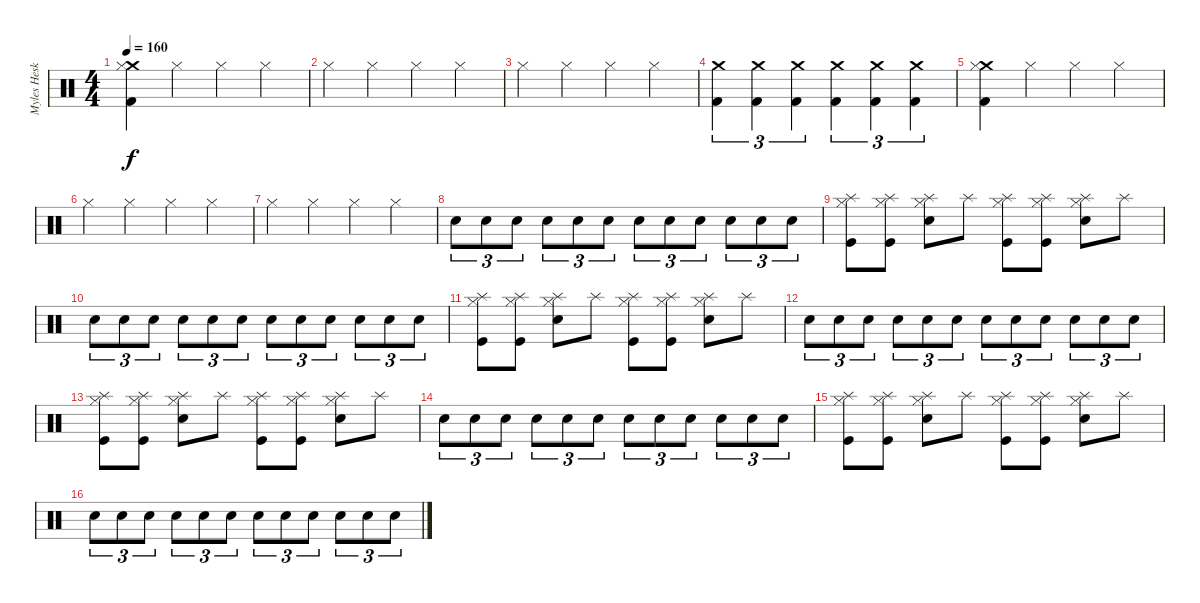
\track ("Myles Heskett" "Myles Hesk") {instrument percussion}
\staff {score}
\articulation defaults
\ts (4 4)
\tempo 160
\clef neutral
\ks c
("Kick (hit) 2" "Crash medium (hit)" "Hi-Hat (closed)").4{dy f} "Hi-Hat (closed)".4 "Hi-Hat (closed)".4 "Hi-Hat (closed)".4 |
"Hi-Hat (closed)".4 "Hi-Hat (closed)".4 "Hi-Hat (closed)".4 "Hi-Hat (closed)".4 |
"Hi-Hat (closed)".4 "Hi-Hat (closed)".4 "Hi-Hat (closed)".4 "Hi-Hat (closed)".4 |
("Kick (hit) 2" "Crash medium (hit)").4{tu (3 2)} ("Kick (hit) 2" "Crash medium (hit)").4{tu (3 2)} ("Kick (hit) 2" "Crash medium (hit)").4{tu (3 2)} ("Kick (hit) 2" "Crash medium (hit)").4{tu (3 2)} ("Kick (hit) 2" "Crash medium (hit)").4{tu (3 2)} ("Kick (hit) 2" "Crash medium (hit)").4{tu (3 2)} |
("Kick (hit) 2" "Crash medium (hit)" "Hi-Hat (closed)").4 "Hi-Hat (closed)".4 "Hi-Hat (closed)".4 "Hi-Hat (closed)".4 |
"Hi-Hat (closed)".4 "Hi-Hat (closed)".4 "Hi-Hat (closed)".4 "Hi-Hat (closed)".4 |
"Hi-Hat (closed)".4 "Hi-Hat (closed)".4 "Hi-Hat (closed)".4 "Hi-Hat (closed)".4 |
"Electric Snare (hit)".8{tu (3 2)} "Electric Snare (hit)".8{tu (3 2)} "Electric Snare (hit)".8{tu (3 2)} "Electric Snare (hit)".8{tu (3 2)} "Electric Snare (hit)".8{tu (3 2)} "Electric Snare (hit)".8{tu (3 2)} "Electric Snare (hit)".8{tu (3 2)} "Electric Snare (hit)".8{tu (3 2)} "Electric Snare (hit)".8{tu (3 2)} "Electric Snare (hit)".8{tu (3 2)} "Electric Snare (hit)".8{tu (3 2)} "Electric Snare (hit)".8{tu (3 2)} |
("Splash (hit)" "Hi-Hat (closed)" "Kick (hit)").8 ("Splash (hit)" "Hi-Hat (closed)" "Kick (hit)").8 ("Splash (hit)" "Hi-Hat (closed)" "Electric Snare (hit)").8 "Splash (hit)".8 ("Splash (hit)" "Hi-Hat (closed)" "Kick (hit)").8 ("Splash (hit)" "Hi-Hat (closed)" "Kick (hit)").8 ("Splash (hit)" "Hi-Hat (closed)" "Electric Snare (hit)").8 "Splash (hit)".8 |
"Snare (hit) 2".8{tu (3 2)} "Snare (hit) 2".8{tu (3 2)} "Snare (hit) 2".8{tu (3 2)} "Electric Snare (hit)".8{tu (3 2)} "Electric Snare (hit)".8{tu (3 2)} "Electric Snare (hit)".8{tu (3 2)} "Snare (hit) 2".8{tu (3 2)} "Snare (hit) 2".8{tu (3 2)} "Snare (hit) 2".8{tu (3 2)} "Electric Snare (hit)".8{tu (3 2)} "Electric Snare (hit)".8{tu (3 2)} "Electric Snare (hit)".8{tu (3 2)} |
("Splash (hit)" "Hi-Hat (closed)" "Kick (hit)").8 ("Splash (hit)" "Hi-Hat (closed)" "Kick (hit)").8 ("Splash (hit)" "Hi-Hat (closed)" "Electric Snare (hit)").8 "Splash (hit)".8 ("Splash (hit)" "Hi-Hat (closed)" "Kick (hit)").8 ("Splash (hit)" "Hi-Hat (closed)" "Kick (hit)").8 ("Splash (hit)" "Hi-Hat (closed)" "Electric Snare (hit)").8 "Splash (hit)".8 |
"Snare (hit) 2".8{tu (3 2)} "Snare (hit) 2".8{tu (3 2)} "Snare (hit) 2".8{tu (3 2)} "Electric Snare (hit)".8{tu (3 2)} "Electric Snare (hit)".8{tu (3 2)} "Electric Snare (hit)".8{tu (3 2)} "Snare (hit) 2".8{tu (3 2)} "Snare (hit) 2".8{tu (3 2)} "Snare (hit) 2".8{tu (3 2)} "Electric Snare (hit)".8{tu (3 2)} "Electric Snare (hit)".8{tu (3 2)} "Electric Snare (hit)".8{tu (3 2)} |
("Splash (hit)" "Hi-Hat (closed)" "Kick (hit)").8 ("Splash (hit)" "Hi-Hat (closed)" "Kick (hit)").8 ("Splash (hit)" "Hi-Hat (closed)" "Electric Snare (hit)").8 "Splash (hit)".8 ("Splash (hit)" "Hi-Hat (closed)" "Kick (hit)").8 ("Splash (hit)" "Hi-Hat (closed)" "Kick (hit)").8 ("Splash (hit)" "Hi-Hat (closed)" "Electric Snare (hit)").8 "Splash (hit)".8 |
"Snare (hit) 2".8{tu (3 2)} "Snare (hit) 2".8{tu (3 2)} "Snare (hit) 2".8{tu (3 2)} "Electric Snare (hit)".8{tu (3 2)} "Electric Snare (hit)".8{tu (3 2)} "Electric Snare (hit)".8{tu (3 2)} "Snare (hit) 2".8{tu (3 2)} "Snare (hit) 2".8{tu (3 2)} "Snare (hit) 2".8{tu (3 2)} "Electric Snare (hit)".8{tu (3 2)} "Electric Snare (hit)".8{tu (3 2)} "Electric Snare (hit)".8{tu (3 2)} |
("Splash (hit)" "Hi-Hat (closed)" "Kick (hit)").8 ("Splash (hit)" "Hi-Hat (closed)" "Kick (hit)").8 ("Splash (hit)" "Hi-Hat (closed)" "Electric Snare (hit)").8 "Splash (hit)".8 ("Splash (hit)" "Hi-Hat (closed)" "Kick (hit)").8 ("Splash (hit)" "Hi-Hat (closed)" "Kick (hit)").8 ("Splash (hit)" "Hi-Hat (closed)" "Electric Snare (hit)").8 "Splash (hit)".8 |
"Snare (hit) 2".8{tu (3 2)} "Snare (hit) 2".8{tu (3 2)} "Snare (hit) 2".8{tu (3 2)} "Electric Snare (hit)".8{tu (3 2)} "Electric Snare (hit)".8{tu (3 2)} "Electric Snare (hit)".8{tu (3 2)} "Snare (hit) 2".8{tu (3 2)} "Snare (hit) 2".8{tu (3 2)} "Snare (hit) 2".8{tu (3 2)} "Electric Snare (hit)".8{tu (3 2)} "Electric Snare (hit)".8{tu (3 2)} "Electric Snare (hit)".8{tu (3 2)}
